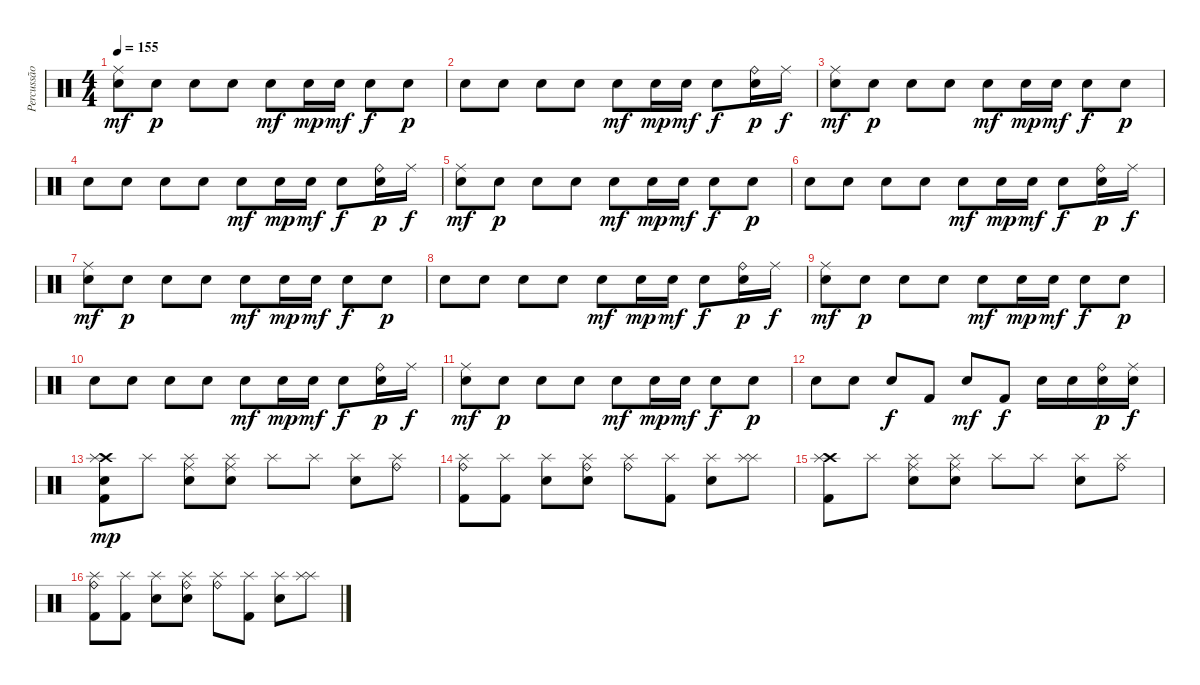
\track ("Percussão" "Percussão") {instrument percussion}
\staff {score}
\articulation defaults
\ts (4 4)
\tempo 155
\clef neutral
\ks c
("Ride (middle)" "Electric Snare (hit)").8{dy mf} "Electric Snare (hit)".8{dy p} "Electric Snare (hit)".8 "Electric Snare (hit)".8 "Electric Snare (hit)".8{dy mf} "Electric Snare (hit)".16{dy mp} "Electric Snare (hit)".16{dy mf} "Electric Snare (hit)".8{dy f} "Electric Snare (hit)".8{dy p} |
"Electric Snare (hit)".8 "Electric Snare (hit)".8 "Electric Snare (hit)".8 "Electric Snare (hit)".8 "Electric Snare (hit)".8{dy mf} "Electric Snare (hit)".16{dy mp} "Electric Snare (hit)".16{dy mf} "Electric Snare (hit)".8{dy f} ("Ride (bell)" "Electric Snare (hit)").16{dy p} "Ride (middle)".16{dy f} |
("Ride (middle)" "Electric Snare (hit)").8{dy mf} "Electric Snare (hit)".8{dy p} "Electric Snare (hit)".8 "Electric Snare (hit)".8 "Electric Snare (hit)".8{dy mf} "Electric Snare (hit)".16{dy mp} "Electric Snare (hit)".16{dy mf} "Electric Snare (hit)".8{dy f} "Electric Snare (hit)".8{dy p} |
"Electric Snare (hit)".8 "Electric Snare (hit)".8 "Electric Snare (hit)".8 "Electric Snare (hit)".8 "Electric Snare (hit)".8{dy mf} "Electric Snare (hit)".16{dy mp} "Electric Snare (hit)".16{dy mf} "Electric Snare (hit)".8{dy f} ("Ride (bell)" "Electric Snare (hit)").16{dy p} "Ride (middle)".16{dy f} |
("Ride (middle)" "Electric Snare (hit)").8{dy mf} "Electric Snare (hit)".8{dy p} "Electric Snare (hit)".8 "Electric Snare (hit)".8 "Electric Snare (hit)".8{dy mf} "Electric Snare (hit)".16{dy mp} "Electric Snare (hit)".16{dy mf} "Electric Snare (hit)".8{dy f} "Electric Snare (hit)".8{dy p} |
"Electric Snare (hit)".8 "Electric Snare (hit)".8 "Electric Snare (hit)".8 "Electric Snare (hit)".8 "Electric Snare (hit)".8{dy mf} "Electric Snare (hit)".16{dy mp} "Electric Snare (hit)".16{dy mf} "Electric Snare (hit)".8{dy f} ("Ride (bell)" "Electric Snare (hit)").16{dy p} "Ride (middle)".16{dy f} |
("Ride (middle)" "Electric Snare (hit)").8{dy mf} "Electric Snare (hit)".8{dy p} "Electric Snare (hit)".8 "Electric Snare (hit)".8 "Electric Snare (hit)".8{dy mf} "Electric Snare (hit)".16{dy mp} "Electric Snare (hit)".16{dy mf} "Electric Snare (hit)".8{dy f} "Electric Snare (hit)".8{dy p} |
"Electric Snare (hit)".8 "Electric Snare (hit)".8 "Electric Snare (hit)".8 "Electric Snare (hit)".8 "Electric Snare (hit)".8{dy mf} "Electric Snare (hit)".16{dy mp} "Electric Snare (hit)".16{dy mf} "Electric Snare (hit)".8{dy f} ("Ride (bell)" "Electric Snare (hit)").16{dy p} "Ride (middle)".16{dy f} |
("Ride (middle)" "Electric Snare (hit)").8{dy mf} "Electric Snare (hit)".8{dy p} "Electric Snare (hit)".8 "Electric Snare (hit)".8 "Electric Snare (hit)".8{dy mf} "Electric Snare (hit)".16{dy mp} "Electric Snare (hit)".16{dy mf} "Electric Snare (hit)".8{dy f} "Electric Snare (hit)".8{dy p} |
"Electric Snare (hit)".8 "Electric Snare (hit)".8 "Electric Snare (hit)".8 "Electric Snare (hit)".8 "Electric Snare (hit)".8{dy mf} "Electric Snare (hit)".16{dy mp} "Electric Snare (hit)".16{dy mf} "Electric Snare (hit)".8{dy f} ("Ride (bell)" "Electric Snare (hit)").16{dy p} "Ride (middle)".16{dy f} |
("Ride (middle)" "Electric Snare (hit)").8{dy mf} "Electric Snare (hit)".8{dy p} "Electric Snare (hit)".8 "Electric Snare (hit)".8 "Electric Snare (hit)".8{dy mf} "Electric Snare (hit)".16{dy mp} "Electric Snare (hit)".16{dy mf} "Electric Snare (hit)".8{dy f} "Electric Snare (hit)".8{dy p} |
"Electric Snare (hit)".8 "Electric Snare (hit)".8 "Electric Snare (hit)".8{dy f} "Kick (hit) 2".8 "Electric Snare (hit)".8{dy mf} "Kick (hit) 2".8{dy f} "Electric Snare (hit)".16 "Electric Snare (hit)".16 ("Ride (bell)" "Electric Snare (hit)").16{dy p} ("Ride (middle)" "Electric Snare (hit)").16{dy f} |
("Crash high (hit)" "Electric Snare (hit)" "Kick (hit) 2" "Splash (hit)").8{dy mp} "Splash (hit)".8 ("Ride (middle)" "Electric Snare (hit)" "Splash (hit)").8 ("Ride (middle)" "Electric Snare (hit)" "Splash (hit)").8 "Splash (hit)".8 "Splash (hit)".8 ("Electric Snare (hit)" "Splash (hit)").8 ("Ride (bell)" "Splash (hit)").8 |
("Ride (bell)" "Kick (hit) 2" "Splash (hit)").8 ("Kick (hit) 2" "Splash (hit)").8 ("Electric Snare (hit)" "Splash (hit)").8 ("Ride (bell)" "Electric Snare (hit)" "Splash (hit)").8 ("Ride (bell)" "Splash (hit)").8 ("Kick (hit) 2" "Splash (hit)").8 ("Electric Snare (hit)" "Splash (hit)").8 ("Splash (hit)" "Splash (hit)").8 |
("Crash high (hit)" "Kick (hit) 2" "Splash (hit)").8 "Splash (hit)".8 ("Ride (middle)" "Electric Snare (hit)" "Splash (hit)").8 ("Ride (middle)" "Electric Snare (hit)" "Splash (hit)").8 "Splash (hit)".8 "Splash (hit)".8 ("Electric Snare (hit)" "Splash (hit)").8 ("Ride (bell)" "Splash (hit)").8 |
("Ride (bell)" "Kick (hit) 2" "Splash (hit)").8 ("Kick (hit) 2" "Splash (hit)").8 ("Electric Snare (hit)" "Splash (hit)").8 ("Ride (bell)" "Electric Snare (hit)" "Splash (hit)").8 ("Ride (bell)" "Splash (hit)").8 ("Kick (hit) 2" "Splash (hit)").8 ("Electric Snare (hit)" "Splash (hit)").8 ("Splash (hit)" "Splash (hit)").8
